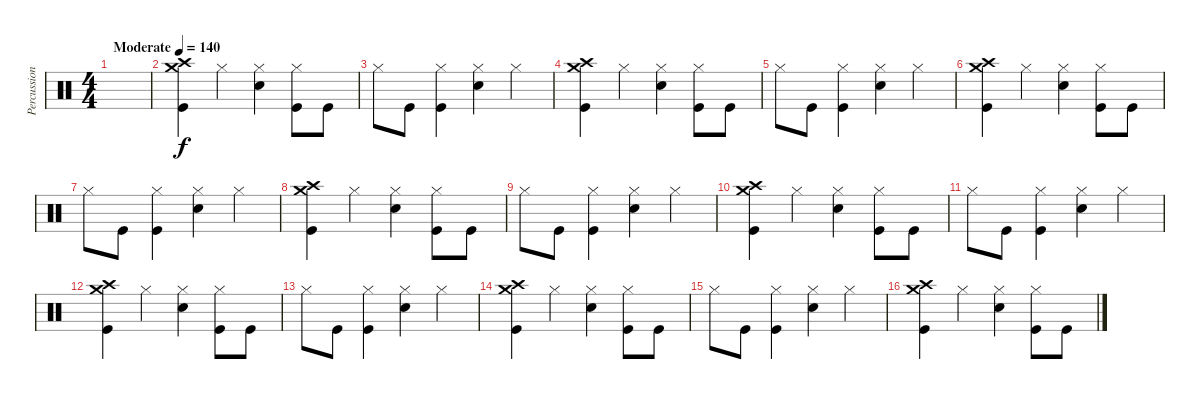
\track ("Percussion" "Percussion") {instrument percussion}
\staff {score}
\articulation defaults
\ts (4 4)
\tempo (140 "Moderate")
\clef neutral
\ks c
|
("Kick (hit)" "Crash medium (hit)" "Crash high (hit)").4 "Hi-Hat (closed)".4 ("Snare (hit) 2" "Hi-Hat (closed)").4 ("Kick (hit)" "Hi-Hat (closed)").8 "Kick (hit)".8 |
"Hi-Hat (closed)".8 "Kick (hit)".8 ("Kick (hit)" "Hi-Hat (closed)").4 ("Snare (hit) 2" "Hi-Hat (closed)").4 "Hi-Hat (closed)".4 |
("Kick (hit)" "Crash medium (hit)" "Crash high (hit)").4 "Hi-Hat (closed)".4 ("Snare (hit) 2" "Hi-Hat (closed)").4 ("Kick (hit)" "Hi-Hat (closed)").8 "Kick (hit)".8 |
"Hi-Hat (closed)".8 "Kick (hit)".8 ("Kick (hit)" "Hi-Hat (closed)").4 ("Snare (hit) 2" "Hi-Hat (closed)").4 "Hi-Hat (closed)".4 |
("Kick (hit)" "Crash medium (hit)" "Crash high (hit)").4 "Hi-Hat (closed)".4 ("Snare (hit) 2" "Hi-Hat (closed)").4 ("Kick (hit)" "Hi-Hat (closed)").8 "Kick (hit)".8 |
"Hi-Hat (closed)".8 "Kick (hit)".8 ("Kick (hit)" "Hi-Hat (closed)").4 ("Snare (hit) 2" "Hi-Hat (closed)").4 "Hi-Hat (closed)".4 |
("Kick (hit)" "Crash medium (hit)" "Crash high (hit)").4 "Hi-Hat (closed)".4 ("Snare (hit) 2" "Hi-Hat (closed)").4 ("Kick (hit)" "Hi-Hat (closed)").8 "Kick (hit)".8 |
"Hi-Hat (closed)".8 "Kick (hit)".8 ("Kick (hit)" "Hi-Hat (closed)").4 ("Snare (hit) 2" "Hi-Hat (closed)").4 "Hi-Hat (closed)".4 |
("Kick (hit)" "Crash medium (hit)" "Crash high (hit)").4 "Hi-Hat (closed)".4 ("Snare (hit) 2" "Hi-Hat (closed)").4 ("Kick (hit)" "Hi-Hat (closed)").8 "Kick (hit)".8 |
"Hi-Hat (closed)".8 "Kick (hit)".8 ("Kick (hit)" "Hi-Hat (closed)").4 ("Snare (hit) 2" "Hi-Hat (closed)").4 "Hi-Hat (closed)".4 |
("Kick (hit)" "Crash medium (hit)" "Crash high (hit)").4 "Hi-Hat (closed)".4 ("Snare (hit) 2" "Hi-Hat (closed)").4 ("Kick (hit)" "Hi-Hat (closed)").8 "Kick (hit)".8 |
"Hi-Hat (closed)".8 "Kick (hit)".8 ("Kick (hit)" "Hi-Hat (closed)").4 ("Snare (hit) 2" "Hi-Hat (closed)").4 "Hi-Hat (closed)".4 |
("Kick (hit)" "Crash medium (hit)" "Crash high (hit)").4 "Hi-Hat (closed)".4 ("Snare (hit) 2" "Hi-Hat (closed)").4 ("Kick (hit)" "Hi-Hat (closed)").8 "Kick (hit)".8 |
"Hi-Hat (closed)".8 "Kick (hit)".8 ("Kick (hit)" "Hi-Hat (closed)").4 ("Snare (hit) 2" "Hi-Hat (closed)").4 "Hi-Hat (closed)".4 |
("Kick (hit)" "Crash medium (hit)" "Crash high (hit)").4 "Hi-Hat (closed)".4 ("Snare (hit) 2" "Hi-Hat (closed)").4 ("Kick (hit)" "Hi-Hat (closed)").8 "Kick (hit)".8
